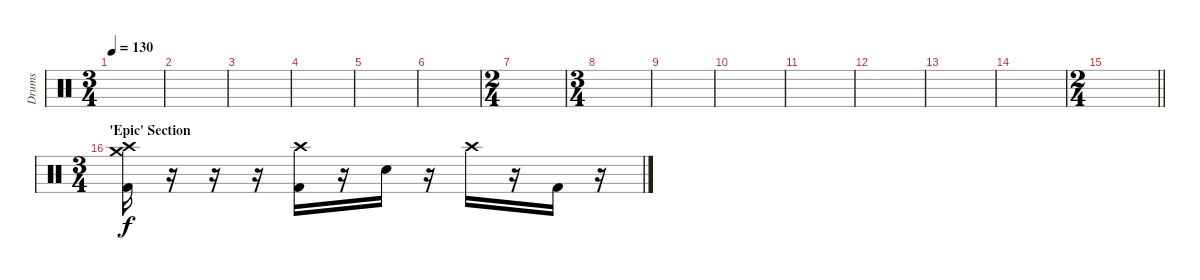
\track ("Drums" "Drums") {instrument percussion}
\staff {score}
\articulation defaults
\ts (3 4)
\tempo 130
\clef neutral
\ks c
|
|
|
|
|
|
\ts (2 4)
|
\ts (3 4)
|
|
|
|
|
|
|
\ts (2 4)
\barLineRight lightlight
|
\ts (3 4)
\section ("" "'Epic' Section")
("Crash medium (hit)" "Crash high (hit)" "Kick (hit) 2").16 r.16 r.16 r.16 ("Crash high (hit)" "Kick (hit) 2").16 r.16 "Electric Snare (hit)".16 r.16 "Crash high (hit)".16 r.16 "Kick (hit) 2".16 r.16
